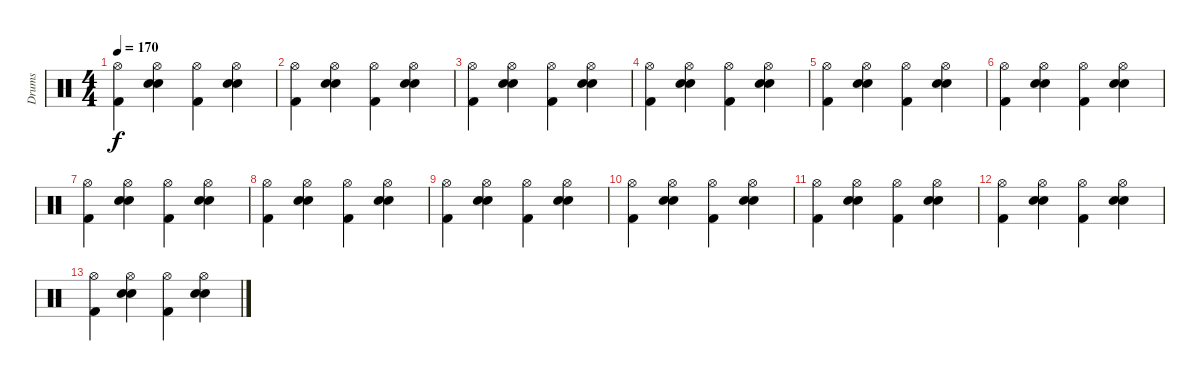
\track ("Drums" "Drums") {instrument percussion}
\staff {score}
\articulation defaults
\ts (4 4)
\tempo 170
\clef neutral
\ks c
("Hi-Hat (open)" "Kick (hit) 2").4{dy f} ("Hi-Hat (open)" "Electric Snare (hit)" "Hand Clap (hit)").4 ("Hi-Hat (open)" "Kick (hit) 2").4 ("Hi-Hat (open)" "Electric Snare (hit)" "Hand Clap (hit)").4 |
("Hi-Hat (open)" "Kick (hit) 2").4 ("Hi-Hat (open)" "Electric Snare (hit)" "Hand Clap (hit)").4 ("Hi-Hat (open)" "Kick (hit) 2").4 ("Hi-Hat (open)" "Electric Snare (hit)" "Hand Clap (hit)").4 |
("Hi-Hat (open)" "Kick (hit) 2").4 ("Hi-Hat (open)" "Electric Snare (hit)" "Hand Clap (hit)").4 ("Hi-Hat (open)" "Kick (hit) 2").4 ("Hi-Hat (open)" "Electric Snare (hit)" "Hand Clap (hit)").4 |
("Hi-Hat (open)" "Kick (hit) 2").4 ("Hi-Hat (open)" "Electric Snare (hit)" "Hand Clap (hit)").4 ("Hi-Hat (open)" "Kick (hit) 2").4 ("Hi-Hat (open)" "Electric Snare (hit)" "Hand Clap (hit)").4 |
("Hi-Hat (open)" "Kick (hit) 2").4 ("Hi-Hat (open)" "Electric Snare (hit)" "Hand Clap (hit)").4 ("Hi-Hat (open)" "Kick (hit) 2").4 ("Hi-Hat (open)" "Electric Snare (hit)" "Hand Clap (hit)").4 |
("Hi-Hat (open)" "Kick (hit) 2").4{volume 9} ("Hi-Hat (open)" "Electric Snare (hit)" "Hand Clap (hit)").4 ("Hi-Hat (open)" "Kick (hit) 2").4 ("Hi-Hat (open)" "Electric Snare (hit)" "Hand Clap (hit)").4 |
("Hi-Hat (open)" "Kick (hit) 2").4 ("Hi-Hat (open)" "Electric Snare (hit)" "Hand Clap (hit)").4 ("Hi-Hat (open)" "Kick (hit) 2").4 ("Hi-Hat (open)" "Electric Snare (hit)" "Hand Clap (hit)").4 |
("Hi-Hat (open)" "Kick (hit) 2").4{volume 6} ("Hi-Hat (open)" "Electric Snare (hit)" "Hand Clap (hit)").4 ("Hi-Hat (open)" "Kick (hit) 2").4 ("Hi-Hat (open)" "Electric Snare (hit)" "Hand Clap (hit)").4 |
("Hi-Hat (open)" "Kick (hit) 2").4 ("Hi-Hat (open)" "Electric Snare (hit)" "Hand Clap (hit)").4 ("Hi-Hat (open)" "Kick (hit) 2").4 ("Hi-Hat (open)" "Electric Snare (hit)" "Hand Clap (hit)").4 |
("Hi-Hat (open)" "Kick (hit) 2").4{volume 3} ("Hi-Hat (open)" "Electric Snare (hit)" "Hand Clap (hit)").4 ("Hi-Hat (open)" "Kick (hit) 2").4 ("Hi-Hat (open)" "Electric Snare (hit)" "Hand Clap (hit)").4 |
("Hi-Hat (open)" "Kick (hit) 2").4 ("Hi-Hat (open)" "Electric Snare (hit)" "Hand Clap (hit)").4 ("Hi-Hat (open)" "Kick (hit) 2").4 ("Hi-Hat (open)" "Electric Snare (hit)" "Hand Clap (hit)").4 |
("Hi-Hat (open)" "Kick (hit) 2").4{volume 0} ("Hi-Hat (open)" "Electric Snare (hit)" "Hand Clap (hit)").4 ("Hi-Hat (open)" "Kick (hit) 2").4 ("Hi-Hat (open)" "Electric Snare (hit)" "Hand Clap (hit)").4 |
("Hi-Hat (open)" "Kick (hit) 2").4 ("Hi-Hat (open)" "Electric Snare (hit)" "Hand Clap (hit)").4 ("Hi-Hat (open)" "Kick (hit) 2").4 ("Hi-Hat (open)" "Electric Snare (hit)" "Hand Clap (hit)").4
